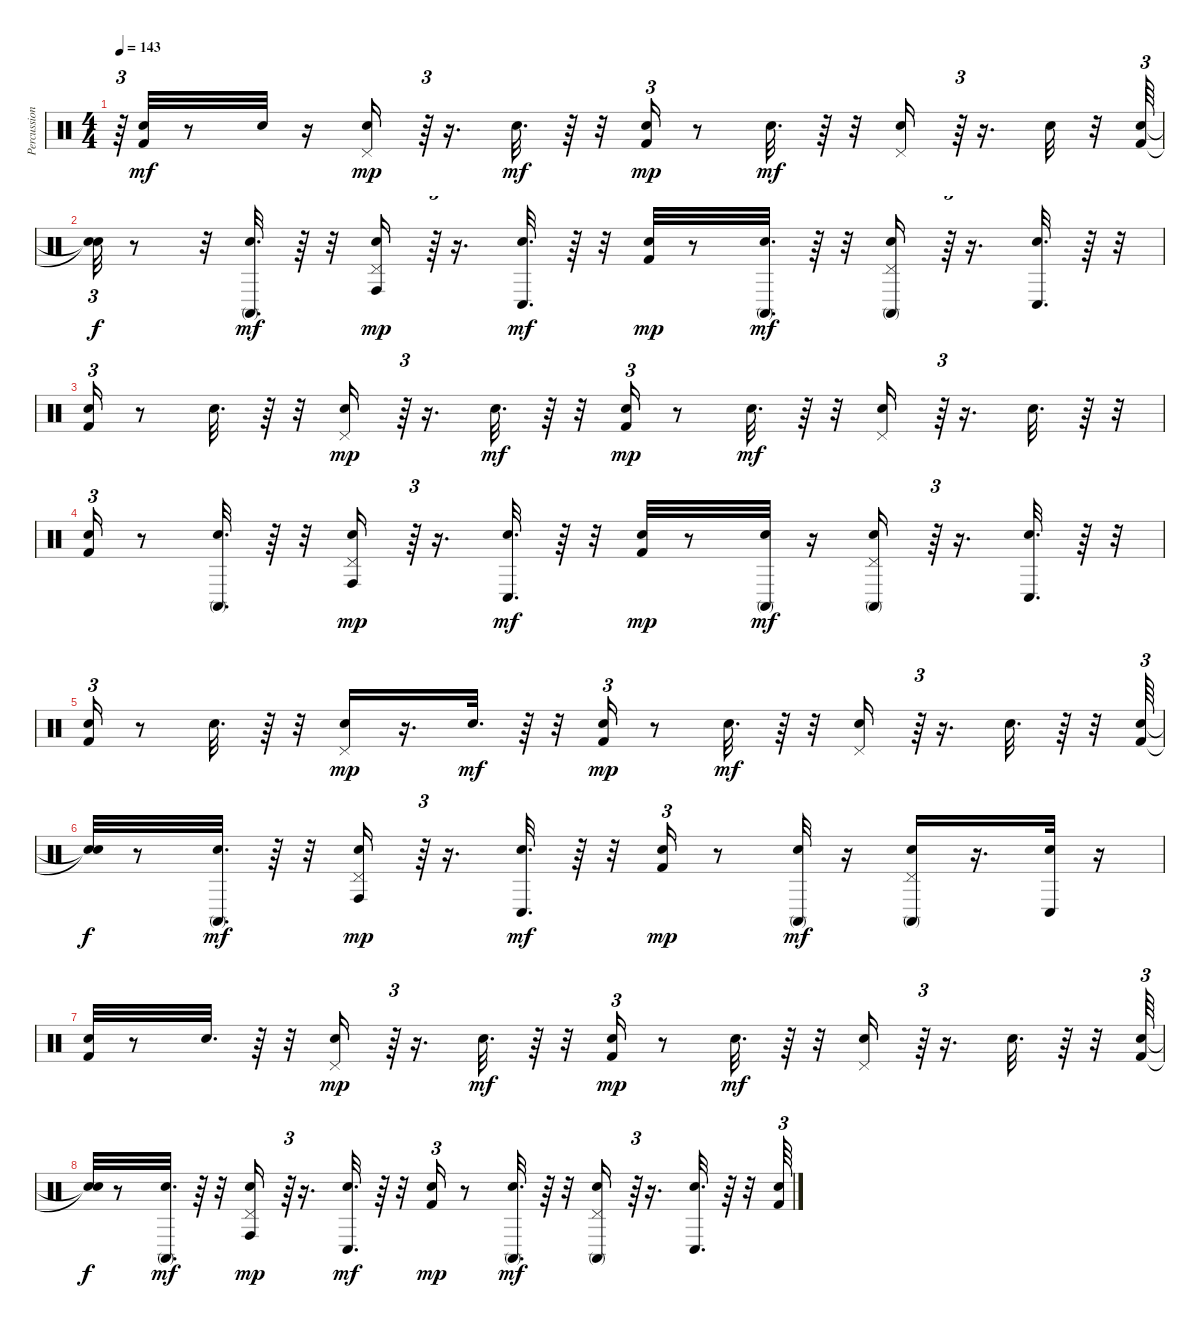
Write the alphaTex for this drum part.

\track ("Percussion" "Percussion") {instrument percussion}
\staff {score}
\articulation defaults
\ts (4 4)
\tempo 143
\clef neutral
\ks c
r.64{tu (3 2) dy mf} ("Kick (hit) 2" "Snare (hit) 2").32 r.8 "Snare (hit) 2".32 r.16 ("Hand Clap (hit)" "Pedal Hi-Hat (hit)").16{dy mp} r.64{tu (3 2)} r.16{d} "Hand Clap (hit)".32{d dy mf} r.64 r.32 ("Kick (hit) 2" "Snare (hit) 2").16{tu (3 2) dy mp} r.8 "Snare (hit) 2".32{d dy mf} r.64 r.32 ("Hand Clap (hit)" "Pedal Hi-Hat (hit)").16 r.64{tu (3 2)} r.16{d} "Hand Clap (hit)".32 r.32 ("Kick (hit) 2" "Snare (hit) 2").64{tu (3 2)} |
("Snare (hit)"{t} "Snare (hit)"{t}).32{tu (3 2) dy f} r.8 r.32 ("Snare (hit) 2" "Conga high (mute)").32{d dy mf} r.64 r.32 ("Hand Clap (hit)" "Pedal Hi-Hat (hit)" "Conga high (hit)").16{dy mp} r.64{tu (3 2)} r.16{d} ("Hand Clap (hit)" "Conga low (hit)").32{d dy mf} r.64 r.32 ("Kick (hit) 2" "Snare (hit) 2").32{dy mp} r.8 ("Snare (hit) 2" "Conga high (mute)").32{d dy mf} r.64 r.32 ("Hand Clap (hit)" "Pedal Hi-Hat (hit)" "Conga high (mute)").16 r.64{tu (3 2)} r.16{d} ("Hand Clap (hit)" "Conga low (hit)").32{d} r.64 r.32 |
("Kick (hit) 2" "Snare (hit) 2").16{tu (3 2)} r.8 "Snare (hit) 2".32{d} r.64 r.32 ("Hand Clap (hit)" "Pedal Hi-Hat (hit)").16{dy mp} r.64{tu (3 2)} r.16{d} "Hand Clap (hit)".32{d dy mf} r.64 r.32 ("Kick (hit) 2" "Snare (hit) 2").16{tu (3 2) dy mp} r.8 "Snare (hit) 2".32{d dy mf} r.64 r.32 ("Hand Clap (hit)" "Pedal Hi-Hat (hit)").16 r.64{tu (3 2)} r.16{d} "Hand Clap (hit)".32{d} r.64 r.32 |
("Kick (hit) 2" "Snare (hit) 2").16{tu (3 2)} r.8 ("Snare (hit) 2" "Conga high (mute)").32{d} r.64 r.32 ("Hand Clap (hit)" "Pedal Hi-Hat (hit)" "Conga high (hit)").16{dy mp} r.64{tu (3 2)} r.16{d} ("Hand Clap (hit)" "Conga low (hit)").32{d dy mf} r.64 r.32 ("Kick (hit) 2" "Snare (hit) 2").32{dy mp} r.8 ("Snare (hit) 2" "Conga high (mute)").32{dy mf} r.16 ("Hand Clap (hit)" "Pedal Hi-Hat (hit)" "Conga high (mute)").16 r.64{tu (3 2)} r.16{d} ("Hand Clap (hit)" "Conga low (hit)").32{d} r.64 r.32 |
("Kick (hit) 2" "Snare (hit) 2").16{tu (3 2)} r.8 "Snare (hit) 2".32{d} r.64 r.32 ("Pedal Hi-Hat (hit)" "Hand Clap (hit)").16{dy mp} r.16{d} "Hand Clap (hit)".32{d dy mf} r.64 r.32 ("Kick (hit) 2" "Snare (hit) 2").16{tu (3 2) dy mp} r.8 "Snare (hit) 2".32{d dy mf} r.64 r.32 ("Hand Clap (hit)" "Pedal Hi-Hat (hit)").16 r.64{tu (3 2)} r.16{d} "Hand Clap (hit)".32{d} r.64 r.32 ("Kick (hit) 2" "Snare (hit) 2").64{tu (3 2)} |
("Snare (hit)"{t} "Snare (hit)"{t}).32{dy f} r.8 ("Snare (hit) 2" "Conga high (mute)").32{d dy mf} r.64 r.32 ("Hand Clap (hit)" "Pedal Hi-Hat (hit)" "Conga high (hit)").16{dy mp} r.64{tu (3 2)} r.16{d} ("Hand Clap (hit)" "Conga low (hit)").32{d dy mf} r.64 r.32 ("Kick (hit) 2" "Snare (hit) 2").16{tu (3 2) dy mp} r.8 ("Snare (hit) 2" "Conga high (mute)").32{dy mf} r.16 ("Hand Clap (hit)" "Pedal Hi-Hat (hit)" "Conga high (mute)").16 r.16{d} ("Hand Clap (hit)" "Conga low (hit)").32 r.16 |
("Kick (hit) 2" "Snare (hit) 2").32 r.8 "Snare (hit) 2".32{d} r.64 r.32 ("Hand Clap (hit)" "Pedal Hi-Hat (hit)").16{dy mp} r.64{tu (3 2)} r.16{d} "Hand Clap (hit)".32{d dy mf} r.64 r.32 ("Kick (hit) 2" "Snare (hit) 2").16{tu (3 2) dy mp} r.8 "Snare (hit) 2".32{d dy mf} r.64 r.32 ("Hand Clap (hit)" "Pedal Hi-Hat (hit)").16 r.64{tu (3 2)} r.16{d} "Hand Clap (hit)".32{d} r.64 r.32 ("Kick (hit) 2" "Snare (hit) 2").64{tu (3 2)} |
("Snare (hit)"{t} "Snare (hit)"{t}).32{dy f} r.8 ("Snare (hit) 2" "Conga high (mute)").32{d dy mf} r.64 r.32 ("Hand Clap (hit)" "Pedal Hi-Hat (hit)" "Conga high (hit)").16{dy mp} r.64{tu (3 2)} r.16{d} ("Hand Clap (hit)" "Conga low (hit)").32{d dy mf} r.64 r.32 ("Kick (hit) 2" "Snare (hit) 2").16{tu (3 2) dy mp} r.8 ("Snare (hit) 2" "Conga high (mute)").32{d dy mf} r.64 r.32 ("Hand Clap (hit)" "Pedal Hi-Hat (hit)" "Conga high (mute)").16 r.64{tu (3 2)} r.16{d} ("Hand Clap (hit)" "Conga low (hit)").32{d} r.64 r.32 ("Kick (hit) 2" "Snare (hit) 2").64{tu (3 2)}
